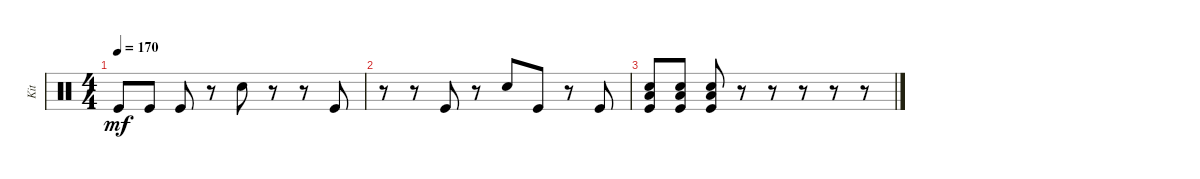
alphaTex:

\track ("Kit" "Kit") {instrument percussion}
\staff {score}
\articulation defaults
\ts (4 4)
\tempo 170
\clef neutral
\ks c "Kick (hit)".8{dy mf} "Kick (hit)".8 "Kick (hit)".8
r.8 "Snare (hit) 2".8 r.8 r.8 "Kick (hit)".8 |
r.8 r.8 "Kick (hit)".8 r.8 "Snare (hit) 2".8 "Kick (hit)".8 r.8 "Kick (hit)".8 |
("Kick (hit)" "Low Floor Tom (hit)" "Snare (hit) 2").8 ("Kick (hit)" "Low Floor Tom (hit)" "Snare (hit) 2").8 ("Kick (hit)" "Low Floor Tom (hit)" "Snare (hit) 2").8 r.8 r.8 r.8 r.8 r.8
